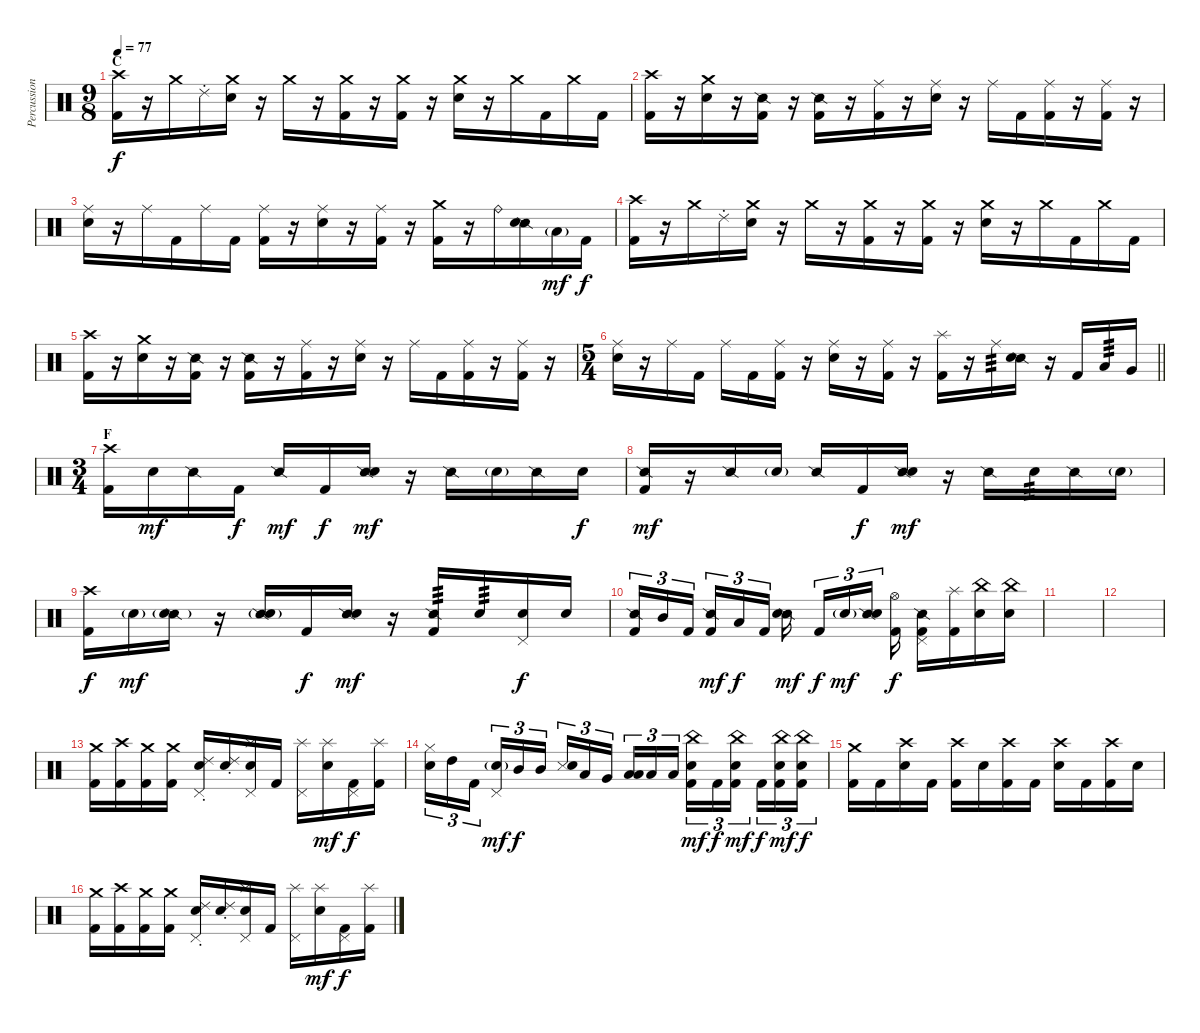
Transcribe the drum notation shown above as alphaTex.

\track ("Percussion" "Percussion") {instrument percussion}
\staff {score}
\articulation defaults
\ts (9 8)
\section ("" "C")
\tempo 77
\clef neutral
\ks c
("Crash high (hit)" "Kick (hit) 2").16{dy f} r.16 "Crash medium (hit)".16 "Ride (choke) 2".16 ("Crash medium (hit)" "Snare (hit) 2").16 r.16 "Crash medium (hit)".16 r.16 ("Crash medium (hit)" "Kick (hit) 2").16 r.16 ("Crash medium (hit)" "Kick (hit) 2").16 r.16 ("Crash medium (hit)" "Snare (hit) 2").16 r.16 "Crash medium (hit)".16 "Kick (hit) 2".16 "Crash medium (hit)".16 "Kick (hit) 2".16 |
("Crash high (hit)" "Kick (hit) 2").16 r.16 ("Crash medium (hit)" "Snare (hit) 2").16 r.16 ("Snare (side stick) 2" "Kick (hit) 2").16 r.16 ("Snare (side stick) 2" "Kick (hit) 2").16 r.16 ("Ride (middle)" "Kick (hit) 2").16 r.16 ("Ride (middle)" "Snare (hit) 2").16 r.16 "Ride (middle)".16 "Kick (hit) 2".16 ("Ride (middle)" "Kick (hit) 2").16 r.16 ("Ride (middle)" "Kick (hit) 2").16 r.16 |
("Ride (middle)" "Snare (hit) 2").16 r.16 "Ride (middle)".16 "Kick (hit) 2".16 "Ride (middle)".16 "Kick (hit) 2".16 ("Ride (middle)" "Kick (hit) 2").16 r.16 ("Ride (middle)" "Snare (hit) 2").16 r.16 ("Ride (middle)" "Kick (hit) 2").16 r.16 ("Crash medium (hit)" "Kick (hit) 2").16 r.16 "Ride (bell)".16 ("Snare (side stick) 2" "Snare (hit) 2").16 "Low Tom (hit)"{g}.16{dy mf} "Kick (hit) 2".16{dy f} |
("Crash high (hit)" "Kick (hit) 2").16 r.16 "Crash medium (hit)".16 "Ride (choke) 2".16 ("Crash medium (hit)" "Snare (hit) 2").16 r.16 "Crash medium (hit)".16 r.16 ("Crash medium (hit)" "Kick (hit) 2").16 r.16 ("Crash medium (hit)" "Kick (hit) 2").16 r.16 ("Crash medium (hit)" "Snare (hit) 2").16 r.16 "Crash medium (hit)".16 "Kick (hit) 2".16 "Crash medium (hit)".16 "Kick (hit) 2".16 |
("Crash high (hit)" "Kick (hit) 2").16 r.16 ("Crash medium (hit)" "Snare (hit) 2").16 r.16 ("Snare (side stick) 2" "Kick (hit) 2").16 r.16 ("Snare (side stick) 2" "Kick (hit) 2").16 r.16 ("Ride (middle)" "Kick (hit) 2").16 r.16 ("Ride (middle)" "Snare (hit) 2").16 r.16 "Ride (middle)".16 "Kick (hit) 2".16 ("Ride (middle)" "Kick (hit) 2").16 r.16 ("Ride (middle)" "Kick (hit) 2").16 r.16 |
\ts (5 4)
\barLineRight lightlight
("Ride (middle)" "Snare (hit) 2").16 r.16 "Ride (middle)".16 "Kick (hit) 2".16 "Ride (middle)".16 "Kick (hit) 2".16 ("Ride (middle)" "Kick (hit) 2").16 r.16 ("Ride (middle)" "Snare (hit) 2").16 r.16 ("Ride (middle)" "Kick (hit) 2").16 r.16 ("Splash (hit)" "Kick (hit) 2").16 r.16 "Ride (middle)".16{tp 3} ("Snare (side stick) 2" "Snare (hit) 2").16 r.16 "Kick (hit) 2".16 "Low Tom (hit)".16{tp 3} "Very Low Tom (hit)".16 |
\ts (3 4)
\section ("" "F")
("Crash high (hit)" "Kick (hit) 2").16 "Snare (hit) 2".16{dy mf} "Snare (side stick) 2".16 "Kick (hit) 2".16{dy f} "Snare (side stick) 2".16{dy mf} "Kick (hit) 2".16{dy f} ("Snare (side stick) 2" "Snare (hit) 2").16{dy mf} r.16 "Snare (side stick) 2".16 "Snare (hit) 2"{g}.16 "Snare (side stick) 2".16 "Snare (hit) 2".16{dy f} |
("Snare (side stick) 2" "Kick (hit) 2").16{dy mf} r.16 "Snare (side stick) 2".16 "Snare (hit) 2"{g}.16 "Snare (side stick) 2".16 "Kick (hit) 2".16{dy f} ("Snare (side stick) 2" "Snare (hit) 2").16{dy mf} r.16 "Snare (side stick) 2".16 "Snare (hit) 2".16{tp 3} "Snare (side stick) 2".16 "Snare (hit) 2"{g}.16 |
("Crash high (hit)" "Kick (hit) 2").16{dy f} "Snare (hit) 2"{g}.16{dy mf} ("Snare (side stick) 2" "Snare (hit) 2"{g}).16 r.16 ("Snare (side stick) 2" "Snare (hit) 2"{g}).16 "Kick (hit) 2".16{dy f} ("Snare (side stick) 2" "Snare (hit) 2").16{dy mf} r.16 ("Snare (side stick) 2" "Kick (hit) 2").16{tp 3} "Snare (hit) 2".16{tp 3} ("Pedal Hi-Hat (hit)" "Snare (hit) 2").16{dy f} "Snare (hit) 2".16 |
("Snare (side stick) 2" "Kick (hit) 2").16{tu (3 2)} "Mid Tom (hit)".16{tu (3 2)} "Kick (hit) 2".16{tu (3 2) beam splitsecondary} ("Snare (side stick) 2" "Kick (hit) 2").16{tu (3 2) dy mf} "Low Tom (hit)".16{tu (3 2) dy f} "Kick (hit) 2".16{tu (3 2)} ("Snare (side stick) 2" "Snare (hit) 2").16{dy mf beam splitsecondary} "Kick (hit) 2".16{tu (3 2) dy f} "Snare (hit) 2"{g}.16{tu (3 2) dy mf} ("Snare (side stick) 2" "Snare (hit) 2").16{tu (3 2) beam splitsecondary} ("Hi-Hat (open)" "Kick (hit) 2").16{dy f} ("Snare (side stick) 2" "Pedal Hi-Hat (hit)" "Kick (hit) 2").16 ("Splash (hit)" "Kick (hit) 2").16 ("China (hit)" "Snare (hit) 2").16 ("China (hit)" "Snare (hit) 2").16 |
|
|
("Crash medium (hit)" "Kick (hit) 2").16 ("Crash high (hit)" "Kick (hit) 2").16 ("Crash medium (hit)" "Kick (hit) 2").16 ("Crash medium (hit)" "Kick (hit) 2").16 ("Ride (choke) 2" "Pedal Hi-Hat (hit)" "Snare (hit) 2").16 ("Ride (choke) 2" "Snare (hit) 2").16 ("Splash (hit)" "Pedal Hi-Hat (hit)" "Snare (hit) 2").16 "Kick (hit) 2".16 ("Splash (hit)" "Pedal Hi-Hat (hit)").16 ("Splash (hit)" "Snare (hit) 2").16{dy mf} ("Pedal Hi-Hat (hit)" "Kick (hit) 2").16{dy f} ("Splash (hit)" "Kick (hit) 2").16 |
("Hi-Hat (closed)" "Snare (hit) 2").16{tu (3 2)} "High Tom (hit)".16{tu (3 2)} "Kick (hit) 2".16{tu (3 2) beam splitsecondary} ("Pedal Hi-Hat (hit)" "Snare (hit) 2"{g}).16{tu (3 2) dy mf} "Mid Tom (hit)".16{tu (3 2) dy f} "Mid Tom (hit)".16{tu (3 2)} ("Metronome (hit)" "Snare (hit) 2").16{tu (3 2) bu 120} "Low Tom (hit)".16{tu (3 2)} "Very Low Tom (hit)".16{tu (3 2) beam splitsecondary} ("Low Floor Tom (hit)" "Low Floor Tom (hit)").16{tu (3 2) bu 60} "Low Floor Tom (hit)".16{tu (3 2)} "Low Floor Tom (hit)".16{tu (3 2)} ("China (hit)" "Snare (hit) 2" "Kick (hit) 2").16{tu (3 2) dy mf} "Kick (hit) 2".16{tu (3 2) dy f} ("China (hit)" "Snare (hit) 2" "Kick (hit) 2").16{tu (3 2) dy mf beam splitsecondary} "Kick (hit) 2".16{tu (3 2) dy f} ("China (hit)" "Snare (hit) 2" "Kick (hit) 2").16{tu (3 2) dy mf} ("China (hit)" "Snare (hit) 2" "Kick (hit) 2").16{tu (3 2) dy f} |
("Crash medium (hit)" "Kick (hit) 2").16 "Kick (hit) 2".16 ("Crash high (hit)" "Snare (hit) 2").16 "Kick (hit) 2".16 ("Crash high (hit)" "Kick (hit) 2").16 "Snare (hit) 2".16 ("Crash high (hit)" "Kick (hit) 2").16 "Kick (hit) 2".16 ("Crash high (hit)" "Snare (hit) 2").16 "Kick (hit) 2".16 ("Crash high (hit)" "Kick (hit) 2").16 "Snare (hit) 2".16 |
("Crash medium (hit)" "Kick (hit) 2").16 ("Crash high (hit)" "Kick (hit) 2").16 ("Crash medium (hit)" "Kick (hit) 2").16 ("Crash medium (hit)" "Kick (hit) 2").16 ("Ride (choke) 2" "Pedal Hi-Hat (hit)" "Snare (hit) 2").16 ("Ride (choke) 2" "Snare (hit) 2").16 ("Splash (hit)" "Pedal Hi-Hat (hit)" "Snare (hit) 2").16 "Kick (hit) 2".16 ("Splash (hit)" "Pedal Hi-Hat (hit)").16 ("Splash (hit)" "Snare (hit) 2").16{dy mf} ("Pedal Hi-Hat (hit)" "Kick (hit) 2").16{dy f} ("Splash (hit)" "Kick (hit) 2").16
